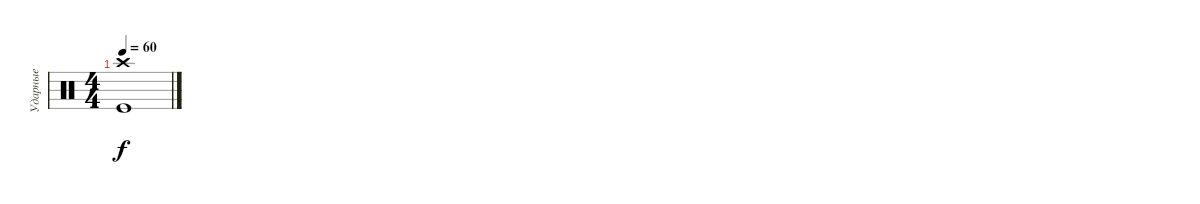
\track ("Ударные" "Ударные") {instrument percussion}
\staff {score}
\articulation defaults
\ts (4 4)
\tempo 60
\clef neutral
\ks c
("Crash high (hit)" "Kick (hit)").1{dy f}
